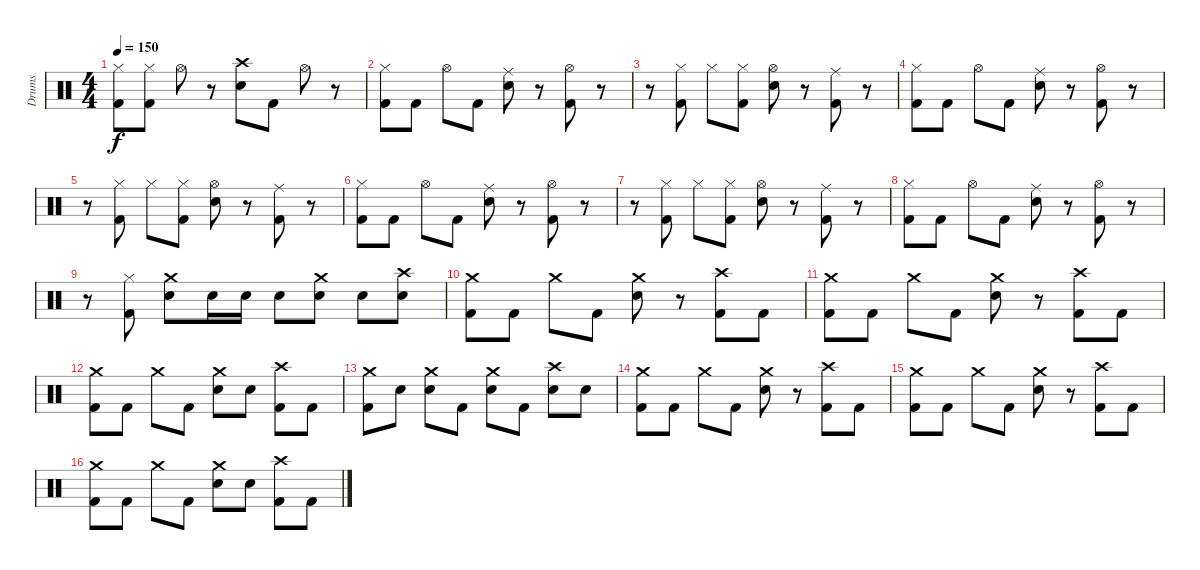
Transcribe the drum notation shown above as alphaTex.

\track ("Drums" "Drums") {instrument percussion}
\staff {score}
\articulation defaults
\ts (4 4)
\tempo 150
\clef neutral
\ks c
("Hi-Hat (closed)" "Kick (hit) 2").8{dy f} ("Hi-Hat (closed)" "Kick (hit) 2").8 "Hi-Hat (open)".8 r.8 ("Crash high (hit)" "Electric Snare (hit)").8 "Kick (hit) 2".8 "Hi-Hat (open)".8 r.8{volume 0} |
("Hi-Hat (closed)" "Kick (hit) 2").8{volume 5} "Kick (hit) 2".8 "Hi-Hat (open)".8 "Kick (hit) 2".8 ("Ride (middle)" "Electric Snare (hit)").8 r.8 ("Hi-Hat (open)" "Kick (hit) 2").8 r.8 |
r.8 ("Hi-Hat (closed)" "Kick (hit) 2").8 "Hi-Hat (closed)".8 ("Hi-Hat (closed)" "Kick (hit) 2").8 ("Hi-Hat (open)" "Electric Snare (hit)").8 r.8 ("Ride (middle)" "Kick (hit) 2").8 r.8 |
("Hi-Hat (closed)" "Kick (hit) 2").8 "Kick (hit) 2".8 "Hi-Hat (open)".8 "Kick (hit) 2".8 ("Ride (middle)" "Electric Snare (hit)").8 r.8 ("Hi-Hat (open)" "Kick (hit) 2").8 r.8 |
r.8 ("Hi-Hat (closed)" "Kick (hit) 2").8 "Hi-Hat (closed)".8 ("Hi-Hat (closed)" "Kick (hit) 2").8 ("Hi-Hat (open)" "Electric Snare (hit)").8 r.8 ("Ride (middle)" "Kick (hit) 2").8 r.8 |
("Hi-Hat (closed)" "Kick (hit) 2").8{volume 10} "Kick (hit) 2".8 "Hi-Hat (open)".8 "Kick (hit) 2".8 ("Ride (middle)" "Electric Snare (hit)").8 r.8 ("Hi-Hat (open)" "Kick (hit) 2").8 r.8 |
r.8 ("Hi-Hat (closed)" "Kick (hit) 2").8 "Hi-Hat (closed)".8 ("Hi-Hat (closed)" "Kick (hit) 2").8 ("Hi-Hat (open)" "Electric Snare (hit)").8 r.8 ("Ride (middle)" "Kick (hit) 2").8 r.8 |
("Hi-Hat (closed)" "Kick (hit) 2").8 "Kick (hit) 2".8 "Hi-Hat (open)".8 "Kick (hit) 2".8 ("Ride (middle)" "Electric Snare (hit)").8 r.8 ("Hi-Hat (open)" "Kick (hit) 2").8 r.8 |
r.8 ("Hi-Hat (closed)" "Kick (hit) 2").8 ("Crash medium (hit)" "Electric Snare (hit)").8 "Electric Snare (hit)".16 "Electric Snare (hit)".16 "Electric Snare (hit)".8 ("Crash medium (hit)" "Electric Snare (hit)").8 "Electric Snare (hit)".8 ("Crash high (hit)" "Electric Snare (hit)").8 |
("Crash medium (hit)" "Kick (hit) 2").8 "Kick (hit) 2".8 "Crash medium (hit)".8 "Kick (hit) 2".8 ("Crash medium (hit)" "Electric Snare (hit)").8 r.8 ("Crash high (hit)" "Kick (hit) 2").8 "Kick (hit) 2".8 |
("Crash medium (hit)" "Kick (hit) 2").8 "Kick (hit) 2".8 "Crash medium (hit)".8 "Kick (hit) 2".8 ("Crash medium (hit)" "Electric Snare (hit)").8 r.8 ("Crash high (hit)" "Kick (hit) 2").8 "Kick (hit) 2".8 |
("Crash medium (hit)" "Kick (hit) 2").8 "Kick (hit) 2".8 "Crash medium (hit)".8 "Kick (hit) 2".8 ("Crash medium (hit)" "Electric Snare (hit)").8 "Electric Snare (hit)".8 ("Crash high (hit)" "Kick (hit) 2").8 "Kick (hit) 2".8 |
("Crash medium (hit)" "Kick (hit) 2").8 "Electric Snare (hit)".8 ("Crash medium (hit)" "Electric Snare (hit)").8 "Kick (hit) 2".8 ("Crash medium (hit)" "Electric Snare (hit)").8 "Kick (hit) 2".8 ("Crash high (hit)" "Electric Snare (hit)").8 "Electric Snare (hit)".8 |
("Crash medium (hit)" "Kick (hit) 2").8 "Kick (hit) 2".8 "Crash medium (hit)".8 "Kick (hit) 2".8 ("Crash medium (hit)" "Electric Snare (hit)").8 r.8 ("Crash high (hit)" "Kick (hit) 2").8 "Kick (hit) 2".8 |
("Crash medium (hit)" "Kick (hit) 2").8 "Kick (hit) 2".8 "Crash medium (hit)".8 "Kick (hit) 2".8 ("Crash medium (hit)" "Electric Snare (hit)").8 r.8 ("Crash high (hit)" "Kick (hit) 2").8 "Kick (hit) 2".8 |
("Crash medium (hit)" "Kick (hit) 2").8 "Kick (hit) 2".8 "Crash medium (hit)".8 "Kick (hit) 2".8 ("Crash medium (hit)" "Electric Snare (hit)").8 "Electric Snare (hit)".8 ("Crash high (hit)" "Kick (hit) 2").8 "Kick (hit) 2".8
